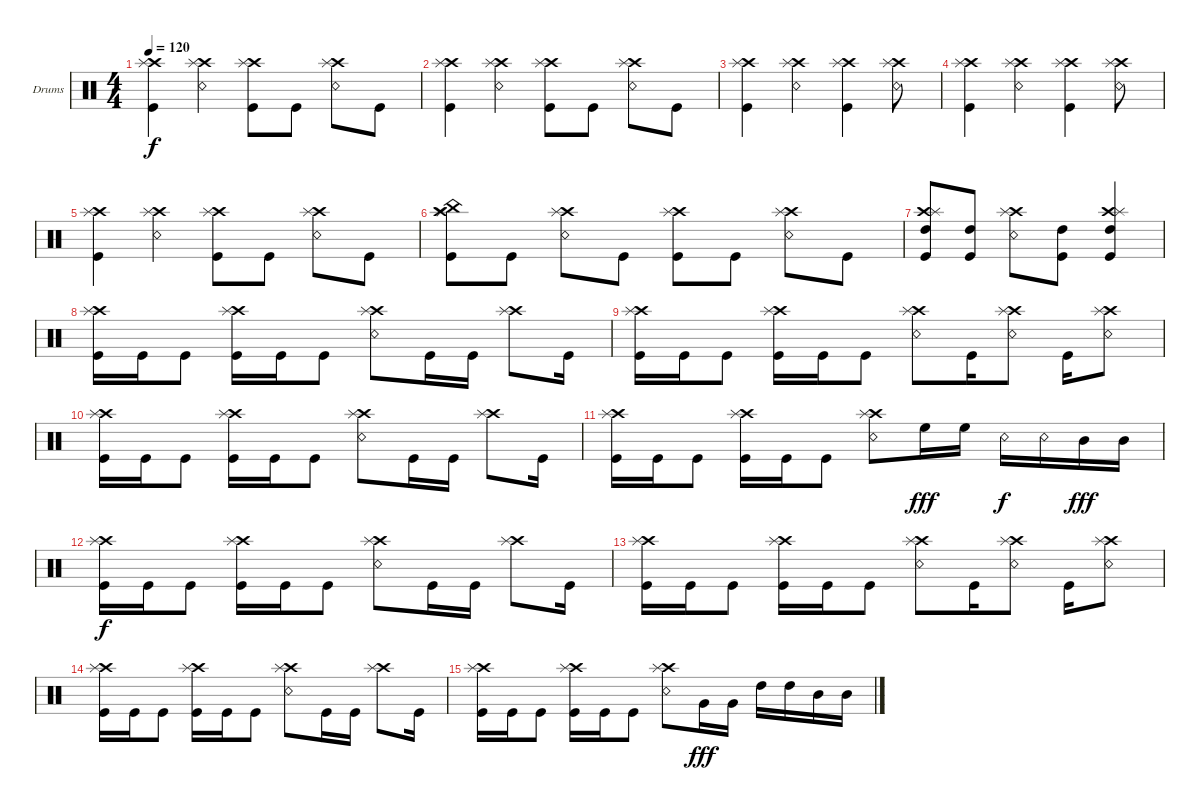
\defaultSystemsLayout 4
\bracketExtendMode groupsimilarinstruments
\firstSystemTrackNameOrientation horizontal
\otherSystemsTrackNameOrientation horizontal
\track ("Drumkit" "Drums") {instrument percussion}
\staff {score}
\articulation defaults
\ts (4 4)
\tempo 120
\clef neutral
\scale
0.333333
\ks c
("Kick (hit)" "Crash high (hit)" "Splash (hit)").4{dy f} ("Snare (rim shot)" "Crash high (hit)" "Splash (hit)").4 ("Kick (hit)" "Crash high (hit)" "Splash (hit)").8 "Kick (hit)".8 ("Snare (rim shot)" "Crash high (hit)" "Splash (hit)").8 "Kick (hit)".8 |
\scale
0.333333 ("Kick (hit)" "Crash high (hit)" "Splash (hit)").4 ("Snare (rim shot)" "Crash high (hit)" "Splash (hit)").4 ("Kick (hit)" "Crash high (hit)" "Splash (hit)").8 "Kick (hit)".8 ("Snare (rim shot)" "Crash high (hit)" "Splash (hit)").8 "Kick (hit)".8 |
\scale
0.333333 ("Kick (hit)" "Crash high (hit)" "Splash (hit)").4 ("Snare (rim shot)" "Crash high (hit)" "Splash (hit)").4 ("Kick (hit)" "Crash high (hit)" "Splash (hit)").4 ("Snare (rim shot)" "Crash high (hit)" "Splash (hit)").8 |
\scale
0.333333 ("Kick (hit)" "Crash high (hit)" "Splash (hit)").4 ("Snare (rim shot)" "Crash high (hit)" "Splash (hit)").4 ("Kick (hit)" "Crash high (hit)" "Splash (hit)").4 ("Snare (rim shot)" "Crash high (hit)" "Splash (hit)").8 |
\scale
0.333333 ("Kick (hit)" "Crash high (hit)" "Splash (hit)").4 ("Snare (rim shot)" "Crash high (hit)" "Splash (hit)").4 ("Kick (hit)" "Crash high (hit)" "Splash (hit)").8 "Kick (hit)".8 ("Snare (rim shot)" "Crash high (hit)" "Splash (hit)").8 "Kick (hit)".8 |
\scale
0.333333 ("Kick (hit)" "Crash high (hit)" "Splash (hit)" "China (hit)").8 "Kick (hit)".8 ("Snare (rim shot)" "Crash high (hit)" "Splash (hit)").8 "Kick (hit)".8 ("Kick (hit)" "Crash high (hit)" "Splash (hit)").8 "Kick (hit)".8 ("Snare (rim shot)" "Crash high (hit)" "Splash (hit)").8 "Kick (hit)".8 |
\scale
0.333333 ("Kick (hit)" "Crash high (hit)" "Splash (hit)" "High Tom (hit)").8 ("Kick (hit)" "High Tom (hit)").8 ("Snare (rim shot)" "Crash high (hit)" "Splash (hit)").8 ("Kick (hit)" "High Tom (hit)").8 ("Kick (hit)" "Crash high (hit)" "Splash (hit)" "High Tom (hit)").4 |
\scale
0.333333 ("Kick (hit)" "Crash high (hit)" "Splash (hit)").16 "Kick (hit)".16 "Kick (hit)".8 ("Kick (hit)" "Crash high (hit)" "Splash (hit)").16 "Kick (hit)".16 "Kick (hit)".8 ("Snare (rim shot)" "Crash high (hit)" "Splash (hit)").8 "Kick (hit)".16 "Kick (hit)".16 ("Crash high (hit)" "Splash (hit)").8 "Kick (hit)".16 |
\scale
0.333333 ("Kick (hit)" "Crash high (hit)" "Splash (hit)").16 "Kick (hit)".16 "Kick (hit)".8 ("Kick (hit)" "Crash high (hit)" "Splash (hit)").16 "Kick (hit)".16 "Kick (hit)".8 ("Snare (rim shot)" "Crash high (hit)" "Splash (hit)").8 "Kick (hit)".16 ("Snare (rim shot)" "Crash high (hit)" "Splash (hit)").8 "Kick (hit)".16 ("Snare (rim shot)" "Crash high (hit)" "Splash (hit)").8 |
\scale
0.333333 ("Kick (hit)" "Crash high (hit)" "Splash (hit)").16 "Kick (hit)".16 "Kick (hit)".8 ("Kick (hit)" "Crash high (hit)" "Splash (hit)").16 "Kick (hit)".16 "Kick (hit)".8 ("Snare (rim shot)" "Crash high (hit)" "Splash (hit)").8 "Kick (hit)".16 "Kick (hit)".16 ("Crash high (hit)" "Splash (hit)").8 "Kick (hit)".16 |
\scale
0.333333 ("Kick (hit)" "Crash high (hit)" "Splash (hit)").16 "Kick (hit)".16 "Kick (hit)".8 ("Kick (hit)" "Crash high (hit)" "Splash (hit)").16 "Kick (hit)".16 "Kick (hit)".8 ("Snare (rim shot)" "Crash high (hit)" "Splash (hit)").8 "High Floor Tom (hit)".16{dy fff} "High Floor Tom (hit)".16 "Snare (rim shot)".16{dy f} "Snare (rim shot)".16 "Mid Tom (hit)".16{dy fff} "Mid Tom (hit)".16 |
\scale
0.333333 ("Kick (hit)" "Crash high (hit)" "Splash (hit)").16{dy f} "Kick (hit)".16 "Kick (hit)".8 ("Kick (hit)" "Crash high (hit)" "Splash (hit)").16 "Kick (hit)".16 "Kick (hit)".8 ("Snare (rim shot)" "Crash high (hit)" "Splash (hit)").8 "Kick (hit)".16 "Kick (hit)".16 ("Crash high (hit)" "Splash (hit)").8 "Kick (hit)".16 |
\scale
0.333333 ("Kick (hit)" "Crash high (hit)" "Splash (hit)").16 "Kick (hit)".16 "Kick (hit)".8 ("Kick (hit)" "Crash high (hit)" "Splash (hit)").16 "Kick (hit)".16 "Kick (hit)".8 ("Snare (rim shot)" "Crash high (hit)" "Splash (hit)").8 "Kick (hit)".16 ("Snare (rim shot)" "Crash high (hit)" "Splash (hit)").8 "Kick (hit)".16 ("Snare (rim shot)" "Crash high (hit)" "Splash (hit)").8 |
\scale
0.333333 ("Kick (hit)" "Crash high (hit)" "Splash (hit)").16 "Kick (hit)".16 "Kick (hit)".8 ("Kick (hit)" "Crash high (hit)" "Splash (hit)").16 "Kick (hit)".16 "Kick (hit)".8 ("Snare (rim shot)" "Crash high (hit)" "Splash (hit)").8 "Kick (hit)".16 "Kick (hit)".16 ("Crash high (hit)" "Splash (hit)").8 "Kick (hit)".16 |
("Kick (hit)" "Crash high (hit)" "Splash (hit)").16 "Kick (hit)".16 "Kick (hit)".8 ("Kick (hit)" "Crash high (hit)" "Splash (hit)").16 "Kick (hit)".16 "Kick (hit)".8 ("Snare (rim shot)" "Crash high (hit)" "Splash (hit)").8 "Very Low Tom (hit)".16{dy fff} "Very Low Tom (hit)".16 "High Tom (hit)".16 "High Tom (hit)".16 "Mid Tom (hit)".16 "Mid Tom (hit)".16
